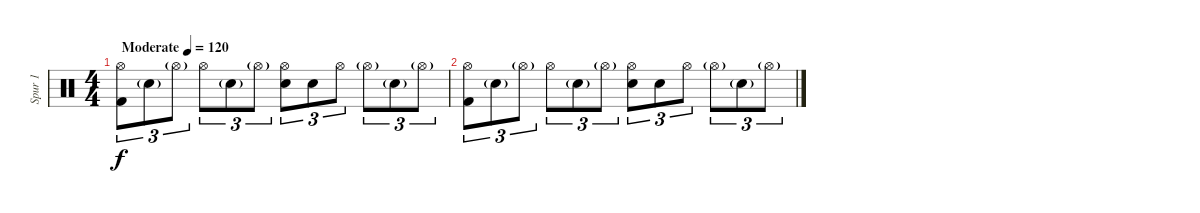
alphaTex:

\track ("Spur 1" "Spur 1") {instrument percussion}
\staff {score}
\articulation defaults
\ts (4 4)
\tempo (120 "Moderate")
\clef neutral
\ks c
("Hi-Hat (open)" "Kick (hit) 2").8{tu (3 2) dy f} "Snare (hit) 2"{g}.8{tu (3 2)} "Hi-Hat (open)"{g}.8{tu (3 2)} "Hi-Hat (open)".8{tu (3 2)} "Snare (hit) 2"{g}.8{tu (3 2)} "Hi-Hat (open)"{g}.8{tu (3 2)} ("Hi-Hat (open)" "Snare (hit) 2").8{tu (3 2)} "Snare (hit) 2".8{tu (3 2)} "Hi-Hat (open)".8{tu (3 2)} "Hi-Hat (open)"{g}.8{tu (3 2)} "Snare (hit) 2"{g}.8{tu (3 2)} "Hi-Hat (open)"{g}.8{tu (3 2)} |
("Hi-Hat (open)" "Kick (hit) 2").8{tu (3 2)} "Snare (hit) 2"{g}.8{tu (3 2)} "Hi-Hat (open)"{g}.8{tu (3 2)} "Hi-Hat (open)".8{tu (3 2)} "Snare (hit) 2"{g}.8{tu (3 2)} "Hi-Hat (open)"{g}.8{tu (3 2)} ("Hi-Hat (open)" "Snare (hit) 2").8{tu (3 2)} "Snare (hit) 2".8{tu (3 2)} "Hi-Hat (open)".8{tu (3 2)} "Hi-Hat (open)"{g}.8{tu (3 2)} "Snare (hit) 2"{g}.8{tu (3 2)} "Hi-Hat (open)"{g}.8{tu (3 2)}
